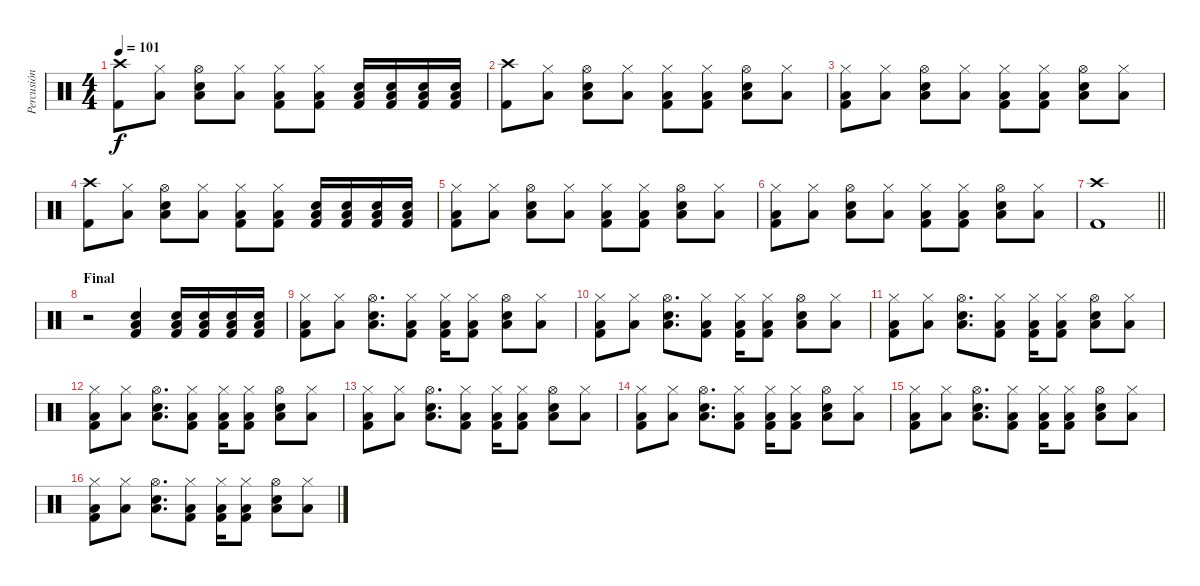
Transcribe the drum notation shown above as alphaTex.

\track ("Percusión" "Percusión") {instrument percussion}
\staff {score}
\articulation defaults
\ts (4 4)
\tempo 101
\clef neutral
\ks c
("Kick (hit) 2" "Crash high (hit)").8{dy f} ("Low Floor Tom (hit)" "Hi-Hat (closed)").8 ("Low Floor Tom (hit)" "Hi-Hat (open)" "Snare (hit) 2").8 ("Low Floor Tom (hit)" "Hi-Hat (closed)").8 ("Low Floor Tom (hit)" "Hi-Hat (closed)" "Kick (hit) 2").8 ("Low Floor Tom (hit)" "Hi-Hat (closed)" "Kick (hit) 2").8 ("Snare (hit) 2" "Low Floor Tom (hit)" "Kick (hit) 2").16 ("Snare (hit) 2" "Low Floor Tom (hit)" "Kick (hit) 2").16 ("Snare (hit) 2" "Low Floor Tom (hit)" "Kick (hit) 2").16 ("Snare (hit) 2" "Low Floor Tom (hit)" "Kick (hit) 2").16 |
("Kick (hit) 2" "Crash high (hit)").8 ("Low Floor Tom (hit)" "Hi-Hat (closed)").8 ("Low Floor Tom (hit)" "Hi-Hat (open)" "Snare (hit) 2").8 ("Low Floor Tom (hit)" "Hi-Hat (closed)").8 ("Low Floor Tom (hit)" "Hi-Hat (closed)" "Kick (hit) 2").8 ("Low Floor Tom (hit)" "Hi-Hat (closed)" "Kick (hit) 2").8 ("Low Floor Tom (hit)" "Hi-Hat (open)" "Snare (hit) 2").8 ("Low Floor Tom (hit)" "Hi-Hat (closed)").8 |
("Low Floor Tom (hit)" "Hi-Hat (closed)" "Kick (hit) 2").8 ("Low Floor Tom (hit)" "Hi-Hat (closed)").8 ("Low Floor Tom (hit)" "Hi-Hat (open)" "Snare (hit) 2").8 ("Low Floor Tom (hit)" "Hi-Hat (closed)").8 ("Low Floor Tom (hit)" "Hi-Hat (closed)" "Kick (hit) 2").8 ("Low Floor Tom (hit)" "Hi-Hat (closed)" "Kick (hit) 2").8 ("Low Floor Tom (hit)" "Hi-Hat (open)" "Snare (hit) 2").8 ("Low Floor Tom (hit)" "Hi-Hat (closed)").8 |
("Kick (hit) 2" "Crash high (hit)").8 ("Low Floor Tom (hit)" "Hi-Hat (closed)").8 ("Low Floor Tom (hit)" "Hi-Hat (open)" "Snare (hit) 2").8 ("Low Floor Tom (hit)" "Hi-Hat (closed)").8 ("Low Floor Tom (hit)" "Hi-Hat (closed)" "Kick (hit) 2").8 ("Low Floor Tom (hit)" "Hi-Hat (closed)" "Kick (hit) 2").8 ("Snare (hit) 2" "Low Floor Tom (hit)" "Kick (hit) 2").16 ("Snare (hit) 2" "Low Floor Tom (hit)" "Kick (hit) 2").16 ("Snare (hit) 2" "Low Floor Tom (hit)" "Kick (hit) 2").16 ("Snare (hit) 2" "Low Floor Tom (hit)" "Kick (hit) 2").16 |
("Low Floor Tom (hit)" "Hi-Hat (closed)" "Kick (hit) 2").8 ("Low Floor Tom (hit)" "Hi-Hat (closed)").8 ("Low Floor Tom (hit)" "Hi-Hat (open)" "Snare (hit) 2").8 ("Low Floor Tom (hit)" "Hi-Hat (closed)").8 ("Low Floor Tom (hit)" "Hi-Hat (closed)" "Kick (hit) 2").8 ("Low Floor Tom (hit)" "Hi-Hat (closed)" "Kick (hit) 2").8 ("Low Floor Tom (hit)" "Hi-Hat (open)" "Snare (hit) 2").8 ("Low Floor Tom (hit)" "Hi-Hat (closed)").8 |
("Low Floor Tom (hit)" "Hi-Hat (closed)" "Kick (hit) 2").8 ("Low Floor Tom (hit)" "Hi-Hat (closed)").8 ("Low Floor Tom (hit)" "Hi-Hat (open)" "Snare (hit) 2").8 ("Low Floor Tom (hit)" "Hi-Hat (closed)").8 ("Low Floor Tom (hit)" "Hi-Hat (closed)" "Kick (hit) 2").8 ("Low Floor Tom (hit)" "Hi-Hat (closed)" "Kick (hit) 2").8 ("Low Floor Tom (hit)" "Hi-Hat (open)" "Snare (hit) 2").8 ("Low Floor Tom (hit)" "Hi-Hat (closed)").8 |
\barLineRight lightlight
("Kick (hit) 2" "Crash high (hit)").1 |
\section ("" "Final")
r.2 ("Snare (hit) 2" "Low Floor Tom (hit)" "Kick (hit) 2").4 ("Snare (hit) 2" "Low Floor Tom (hit)" "Kick (hit) 2").16 ("Snare (hit) 2" "Low Floor Tom (hit)" "Kick (hit) 2").16 ("Snare (hit) 2" "Low Floor Tom (hit)" "Kick (hit) 2").16 ("Snare (hit) 2" "Low Floor Tom (hit)" "Kick (hit) 2").16 |
("Low Floor Tom (hit)" "Hi-Hat (closed)" "Kick (hit) 2").8 ("Low Floor Tom (hit)" "Hi-Hat (closed)").8 ("Low Floor Tom (hit)" "Hi-Hat (open)" "Snare (hit) 2").8{d} ("Low Floor Tom (hit)" "Hi-Hat (closed)" "Kick (hit) 2").8 ("Low Floor Tom (hit)" "Hi-Hat (closed)" "Kick (hit) 2").16 ("Low Floor Tom (hit)" "Hi-Hat (closed)" "Kick (hit) 2").8 ("Low Floor Tom (hit)" "Hi-Hat (open)" "Snare (hit) 2").8 ("Low Floor Tom (hit)" "Hi-Hat (closed)").8 |
("Low Floor Tom (hit)" "Hi-Hat (closed)" "Kick (hit) 2").8 ("Low Floor Tom (hit)" "Hi-Hat (closed)").8 ("Low Floor Tom (hit)" "Hi-Hat (open)" "Snare (hit) 2").8{d} ("Low Floor Tom (hit)" "Hi-Hat (closed)" "Kick (hit) 2").8 ("Low Floor Tom (hit)" "Hi-Hat (closed)" "Kick (hit) 2").16 ("Low Floor Tom (hit)" "Hi-Hat (closed)" "Kick (hit) 2").8 ("Low Floor Tom (hit)" "Hi-Hat (open)" "Snare (hit) 2").8 ("Low Floor Tom (hit)" "Hi-Hat (closed)").8 |
("Low Floor Tom (hit)" "Hi-Hat (closed)" "Kick (hit) 2").8 ("Low Floor Tom (hit)" "Hi-Hat (closed)").8 ("Low Floor Tom (hit)" "Hi-Hat (open)" "Snare (hit) 2").8{d} ("Low Floor Tom (hit)" "Hi-Hat (closed)" "Kick (hit) 2").8 ("Low Floor Tom (hit)" "Hi-Hat (closed)" "Kick (hit) 2").16 ("Low Floor Tom (hit)" "Hi-Hat (closed)" "Kick (hit) 2").8 ("Low Floor Tom (hit)" "Hi-Hat (open)" "Snare (hit) 2").8 ("Low Floor Tom (hit)" "Hi-Hat (closed)").8 |
("Low Floor Tom (hit)" "Hi-Hat (closed)" "Kick (hit) 2").8 ("Low Floor Tom (hit)" "Hi-Hat (closed)").8 ("Low Floor Tom (hit)" "Hi-Hat (open)" "Snare (hit) 2").8{d} ("Low Floor Tom (hit)" "Hi-Hat (closed)" "Kick (hit) 2").8 ("Low Floor Tom (hit)" "Hi-Hat (closed)" "Kick (hit) 2").16 ("Low Floor Tom (hit)" "Hi-Hat (closed)" "Kick (hit) 2").8 ("Low Floor Tom (hit)" "Hi-Hat (open)" "Snare (hit) 2").8 ("Low Floor Tom (hit)" "Hi-Hat (closed)").8 |
("Low Floor Tom (hit)" "Hi-Hat (closed)" "Kick (hit) 2").8 ("Low Floor Tom (hit)" "Hi-Hat (closed)").8 ("Low Floor Tom (hit)" "Hi-Hat (open)" "Snare (hit) 2").8{d} ("Low Floor Tom (hit)" "Hi-Hat (closed)" "Kick (hit) 2").8 ("Low Floor Tom (hit)" "Hi-Hat (closed)" "Kick (hit) 2").16 ("Low Floor Tom (hit)" "Hi-Hat (closed)" "Kick (hit) 2").8 ("Low Floor Tom (hit)" "Hi-Hat (open)" "Snare (hit) 2").8 ("Low Floor Tom (hit)" "Hi-Hat (closed)").8 |
("Low Floor Tom (hit)" "Hi-Hat (closed)" "Kick (hit) 2").8 ("Low Floor Tom (hit)" "Hi-Hat (closed)").8 ("Low Floor Tom (hit)" "Hi-Hat (open)" "Snare (hit) 2").8{d} ("Low Floor Tom (hit)" "Hi-Hat (closed)" "Kick (hit) 2").8 ("Low Floor Tom (hit)" "Hi-Hat (closed)" "Kick (hit) 2").16 ("Low Floor Tom (hit)" "Hi-Hat (closed)" "Kick (hit) 2").8 ("Low Floor Tom (hit)" "Hi-Hat (open)" "Snare (hit) 2").8 ("Low Floor Tom (hit)" "Hi-Hat (closed)").8 |
("Low Floor Tom (hit)" "Hi-Hat (closed)" "Kick (hit) 2").8 ("Low Floor Tom (hit)" "Hi-Hat (closed)").8 ("Low Floor Tom (hit)" "Hi-Hat (open)" "Snare (hit) 2").8{d} ("Low Floor Tom (hit)" "Hi-Hat (closed)" "Kick (hit) 2").8 ("Low Floor Tom (hit)" "Hi-Hat (closed)" "Kick (hit) 2").16 ("Low Floor Tom (hit)" "Hi-Hat (closed)" "Kick (hit) 2").8 ("Low Floor Tom (hit)" "Hi-Hat (open)" "Snare (hit) 2").8 ("Low Floor Tom (hit)" "Hi-Hat (closed)").8 |
("Low Floor Tom (hit)" "Hi-Hat (closed)" "Kick (hit) 2").8 ("Low Floor Tom (hit)" "Hi-Hat (closed)").8 ("Low Floor Tom (hit)" "Hi-Hat (open)" "Snare (hit) 2").8{d} ("Low Floor Tom (hit)" "Hi-Hat (closed)" "Kick (hit) 2").8 ("Low Floor Tom (hit)" "Hi-Hat (closed)" "Kick (hit) 2").16 ("Low Floor Tom (hit)" "Hi-Hat (closed)" "Kick (hit) 2").8 ("Low Floor Tom (hit)" "Hi-Hat (open)" "Snare (hit) 2").8 ("Low Floor Tom (hit)" "Hi-Hat (closed)").8
